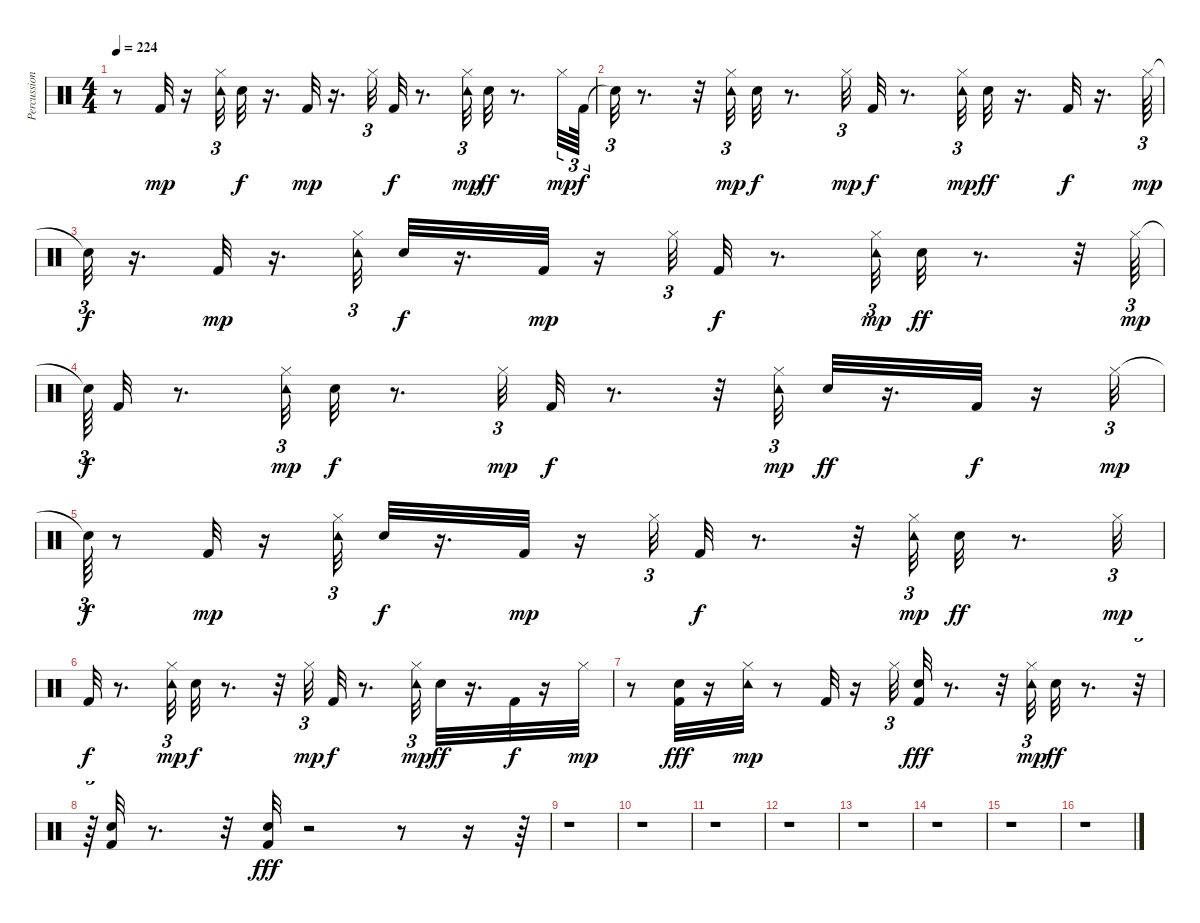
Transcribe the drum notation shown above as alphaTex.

\track ("Percussion" "Percussion") {instrument percussion}
\staff {score}
\articulation defaults
\ts (4 4)
\tempo 224
\clef neutral
\ks c
r.8{dy mp} "Kick (hit) 2".32 r.16 ("Tambourine (hit)" "Hi-Hat (closed)").32{tu (3 2)} "Snare (hit) 2".32{dy f} r.16{d} "Kick (hit) 2".32{dy mp} r.16{d} "Hi-Hat (closed)".32{tu (3 2)} "Kick (hit) 2".32{dy f} r.8{d} ("Tambourine (hit)" "Hi-Hat (closed)").32{tu (3 2) dy mp} "Snare (hit) 2".32{dy ff} r.8{d} "Hi-Hat (closed)".32{tu (3 2) dy mp} "Kick (hit) 2".64{tu (3 2) dy f} |
"Snare (hit)"{t}.32{tu (3 2)} r.8{d} r.32 ("Tambourine (hit)" "Hi-Hat (closed)").32{tu (3 2) dy mp} "Snare (hit) 2".32{dy f} r.8{d} "Hi-Hat (closed)".32{tu (3 2) dy mp} "Kick (hit) 2".32{dy f} r.8{d} ("Tambourine (hit)" "Hi-Hat (closed)").32{tu (3 2) dy mp} "Snare (hit) 2".32{dy ff} r.16{d} "Kick (hit) 2".32{dy f} r.16{d} "Hi-Hat (closed)".64{tu (3 2) dy mp} |
"Snare (hit)"{t}.32{tu (3 2) dy f} r.16{d} "Kick (hit) 2".32{dy mp} r.16{d} ("Tambourine (hit)" "Hi-Hat (closed)").32{tu (3 2)} "Snare (hit) 2".32{dy f} r.16{d} "Kick (hit) 2".32{dy mp} r.16 "Hi-Hat (closed)".32{tu (3 2)} "Kick (hit) 2".32{dy f} r.8{d} ("Tambourine (hit)" "Hi-Hat (closed)").32{tu (3 2) dy mp} "Snare (hit) 2".32{dy ff} r.8{d} r.32 "Hi-Hat (closed)".64{tu (3 2) dy mp} |
"Snare (hit)"{t}.64{tu (3 2) dy f} "Kick (hit) 2".32 r.8{d} ("Tambourine (hit)" "Hi-Hat (closed)").32{tu (3 2) dy mp} "Snare (hit) 2".32{dy f} r.8{d} "Hi-Hat (closed)".32{tu (3 2) dy mp} "Kick (hit) 2".32{dy f} r.8{d} r.32 ("Tambourine (hit)" "Hi-Hat (closed)").32{tu (3 2) dy mp} "Snare (hit) 2".32{dy ff} r.16{d} "Kick (hit) 2".32{dy f} r.16 "Hi-Hat (closed)".32{tu (3 2) dy mp} |
"Snare (hit)"{t}.64{tu (3 2) dy f} r.8 "Kick (hit) 2".32{dy mp} r.16 ("Tambourine (hit)" "Hi-Hat (closed)").32{tu (3 2)} "Snare (hit) 2".32{dy f} r.16{d} "Kick (hit) 2".32{dy mp} r.16 "Hi-Hat (closed)".32{tu (3 2)} "Kick (hit) 2".32{dy f} r.8{d} r.32 ("Tambourine (hit)" "Hi-Hat (closed)").32{tu (3 2) dy mp} "Snare (hit) 2".32{dy ff} r.8{d} "Hi-Hat (closed)".32{tu (3 2) dy mp} |
"Kick (hit) 2".32{dy f} r.8{d} ("Tambourine (hit)" "Hi-Hat (closed)").32{tu (3 2) dy mp} "Snare (hit) 2".32{dy f} r.8{d} r.32 "Hi-Hat (closed)".32{tu (3 2) dy mp} "Kick (hit) 2".32{dy f} r.8{d} ("Tambourine (hit)" "Hi-Hat (closed)").32{tu (3 2) dy mp} "Snare (hit) 2".32{dy ff} r.16{d} "Kick (hit) 2".32{dy f} r.16 "Hi-Hat (closed)".32{dy mp} |
r.8 ("Kick (hit) 2" "Snare (hit) 2").32{dy fff} r.16 ("Tambourine (hit)" "Hi-Hat (closed)").32{dy mp} r.8 "Kick (hit) 2".32 r.16 "Hi-Hat (closed)".32{tu (3 2)} ("Kick (hit) 2" "Snare (hit) 2").32{dy fff} r.8{d} r.32 ("Tambourine (hit)" "Hi-Hat (closed)").32{tu (3 2) dy mp} "Snare (hit) 2".32{dy ff} r.8{d} r.32{tu (3 2)} |
r.64{tu (3 2)} ("Kick (hit) 2" "Snare (hit) 2").32 r.8{d} r.32 ("Kick (hit) 2" "Snare (hit) 2").32{dy fff} r.2 r.8 r.16 r.64 |
r.1 |
r.1 |
r.1 |
r.1 |
r.1 |
r.1 |
r.1 |
r.1
